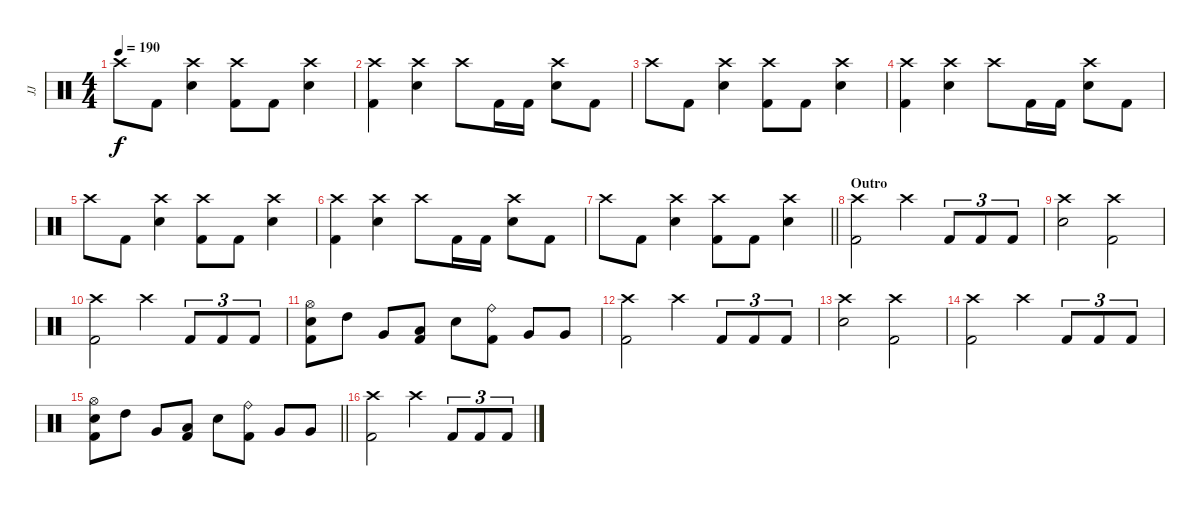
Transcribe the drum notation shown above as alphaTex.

\track ("JJ" "JJ") {instrument percussion}
\staff {score}
\articulation defaults
\ts (4 4)
\tempo 190
\clef neutral
\ks c "Crash high (hit)".8{dy f} "Kick (hit) 2".8
("Crash high (hit)" "Electric Snare (hit)").4 ("Crash high (hit)" "Kick (hit) 2").8 "Kick (hit) 2".8 ("Crash high (hit)" "Electric Snare (hit)").4 |
("Crash high (hit)" "Kick (hit) 2").4 ("Crash high (hit)" "Electric Snare (hit)").4 "Crash high (hit)".8 "Kick (hit) 2".16 "Kick (hit) 2".16 ("Crash high (hit)" "Electric Snare (hit)").8 "Kick (hit) 2".8 |
"Crash high (hit)".8 "Kick (hit) 2".8 ("Crash high (hit)" "Electric Snare (hit)").4 ("Crash high (hit)" "Kick (hit) 2").8 "Kick (hit) 2".8 ("Crash high (hit)" "Electric Snare (hit)").4 |
("Crash high (hit)" "Kick (hit) 2").4 ("Crash high (hit)" "Electric Snare (hit)").4 "Crash high (hit)".8 "Kick (hit) 2".16 "Kick (hit) 2".16 ("Crash high (hit)" "Electric Snare (hit)").8 "Kick (hit) 2".8 |
"Crash high (hit)".8 "Kick (hit) 2".8 ("Crash high (hit)" "Electric Snare (hit)").4 ("Crash high (hit)" "Kick (hit) 2").8 "Kick (hit) 2".8 ("Crash high (hit)" "Electric Snare (hit)").4 |
("Crash high (hit)" "Kick (hit) 2").4 ("Crash high (hit)" "Electric Snare (hit)").4 "Crash high (hit)".8 "Kick (hit) 2".16 "Kick (hit) 2".16 ("Crash high (hit)" "Electric Snare (hit)").8 "Kick (hit) 2".8 |
\barLineRight lightlight "Crash high (hit)".8 "Kick (hit) 2".8
("Crash high (hit)" "Electric Snare (hit)").4 ("Crash high (hit)" "Kick (hit) 2").8 "Kick (hit) 2".8 ("Crash high (hit)" "Electric Snare (hit)").4 |
\section ("" "Outro")
("Crash high (hit)" "Kick (hit) 2").2 "Crash high (hit)".4 "Kick (hit) 2".8{tu (3 2)} "Kick (hit) 2".8{tu (3 2)} "Kick (hit) 2".8{tu (3 2)} |
("Crash high (hit)" "Electric Snare (hit)").2 ("Crash high (hit)" "Kick (hit) 2").2 |
("Crash high (hit)" "Kick (hit) 2").2 "Crash high (hit)".4 "Kick (hit) 2".8{tu (3 2)} "Kick (hit) 2".8{tu (3 2)} "Kick (hit) 2".8{tu (3 2)} |
("Hi-Hat (open)" "Electric Snare (hit)" "Kick (hit) 2").8 "High Tom (hit)".8 "Very Low Tom (hit)".8 ("Low Floor Tom (hit)" "Kick (hit) 2").8 "Electric Snare (hit)".8 ("Ride (bell)" "Kick (hit) 2").8 "Very Low Tom (hit)".8 "Very Low Tom (hit)".8 |
("Crash high (hit)" "Kick (hit) 2").2 "Crash high (hit)".4 "Kick (hit) 2".8{tu (3 2)} "Kick (hit) 2".8{tu (3 2)} "Kick (hit) 2".8{tu (3 2)} |
("Crash high (hit)" "Electric Snare (hit)").2 ("Crash high (hit)" "Kick (hit) 2").2 |
("Crash high (hit)" "Kick (hit) 2").2 "Crash high (hit)".4 "Kick (hit) 2".8{tu (3 2)} "Kick (hit) 2".8{tu (3 2)} "Kick (hit) 2".8{tu (3 2)} |
\barLineRight lightlight
("Hi-Hat (open)" "Electric Snare (hit)" "Kick (hit) 2").8 "High Tom (hit)".8 "Very Low Tom (hit)".8 ("Low Floor Tom (hit)" "Kick (hit) 2").8 "Electric Snare (hit)".8 ("Ride (bell)" "Kick (hit) 2").8 "Very Low Tom (hit)".8 "Very Low Tom (hit)".8 |
("Crash high (hit)" "Kick (hit) 2").2 "Crash high (hit)".4 "Kick (hit) 2".8{tu (3 2)} "Kick (hit) 2".8{tu (3 2)} "Kick (hit) 2".8{tu (3 2)}
